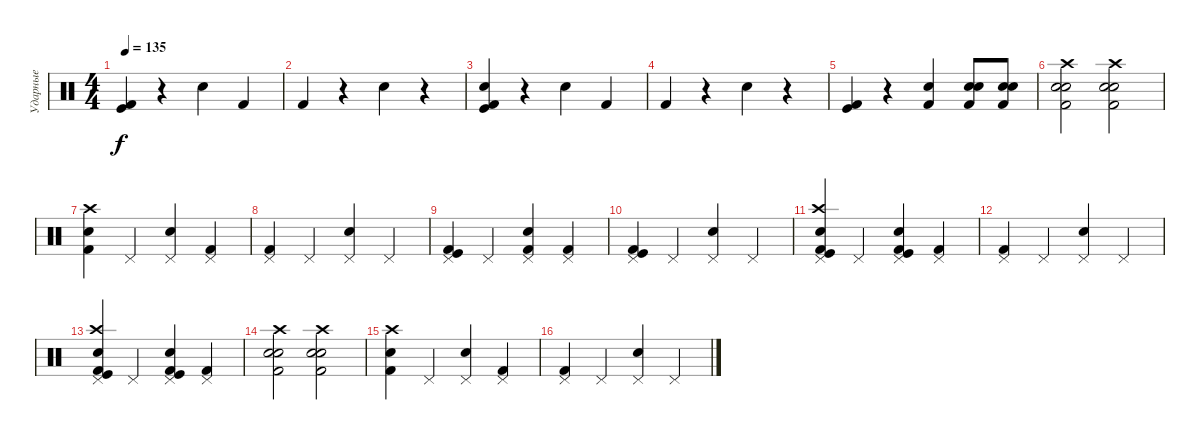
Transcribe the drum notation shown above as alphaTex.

\track ("Ударные" "Ударные") {instrument percussion}
\staff {score}
\articulation defaults
\ts (4 4)
\tempo 135
\clef neutral
\ks c
("Kick (hit) 2" "Kick (hit)").4{dy f} r.4 "Electric Snare (hit)".4 "Kick (hit) 2".4 |
"Kick (hit) 2".4 r.4 "Electric Snare (hit)".4 r.4 |
("Kick (hit) 2" "Kick (hit)" "Snare (hit) 2").4 r.4 "Electric Snare (hit)".4 "Kick (hit) 2".4 |
"Kick (hit) 2".4 r.4 "Electric Snare (hit)".4 r.4 |
("Kick (hit) 2" "Kick (hit)").4 r.4 ("Kick (hit) 2" "Electric Snare (hit)").4 ("Snare (hit) 2" "Kick (hit) 2" "Electric Snare (hit)").8 ("Snare (hit) 2" "Kick (hit) 2" "Electric Snare (hit)").8 |
("Kick (hit) 2" "Snare (hit) 2" "Crash high (hit)" "Electric Snare (hit)").2 ("Kick (hit) 2" "Snare (hit) 2" "Crash high (hit)" "Electric Snare (hit)").2 |
("Kick (hit) 2" "Snare (hit) 2" "Crash high (hit)").4 "Pedal Hi-Hat (hit)".4 ("Electric Snare (hit)" "Pedal Hi-Hat (hit)").4 ("Kick (hit) 2" "Pedal Hi-Hat (hit)").4 |
("Pedal Hi-Hat (hit)" "Kick (hit) 2").4 "Pedal Hi-Hat (hit)".4 ("Pedal Hi-Hat (hit)" "Electric Snare (hit)").4 "Pedal Hi-Hat (hit)".4 |
("Pedal Hi-Hat (hit)" "Kick (hit) 2" "Kick (hit)").4 "Pedal Hi-Hat (hit)".4 ("Pedal Hi-Hat (hit)" "Electric Snare (hit)" "Kick (hit) 2").4 ("Pedal Hi-Hat (hit)" "Kick (hit) 2").4 |
("Kick (hit) 2" "Kick (hit)" "Pedal Hi-Hat (hit)").4 "Pedal Hi-Hat (hit)".4 ("Electric Snare (hit)" "Pedal Hi-Hat (hit)").4 "Pedal Hi-Hat (hit)".4 |
("Pedal Hi-Hat (hit)" "Kick (hit)" "Crash high (hit)" "Snare (hit) 2" "Kick (hit) 2").4 "Pedal Hi-Hat (hit)".4 ("Kick (hit)" "Pedal Hi-Hat (hit)" "Electric Snare (hit)" "Kick (hit) 2").4 ("Pedal Hi-Hat (hit)" "Kick (hit) 2").4 |
("Pedal Hi-Hat (hit)" "Kick (hit) 2").4 "Pedal Hi-Hat (hit)".4 ("Pedal Hi-Hat (hit)" "Electric Snare (hit)").4 "Pedal Hi-Hat (hit)".4 |
("Pedal Hi-Hat (hit)" "Kick (hit)" "Crash high (hit)" "Snare (hit) 2" "Kick (hit) 2").4 "Pedal Hi-Hat (hit)".4 ("Kick (hit)" "Pedal Hi-Hat (hit)" "Electric Snare (hit)" "Kick (hit) 2").4 ("Pedal Hi-Hat (hit)" "Kick (hit) 2").4 |
("Kick (hit) 2" "Snare (hit) 2" "Crash high (hit)" "Electric Snare (hit)").2 ("Kick (hit) 2" "Snare (hit) 2" "Crash high (hit)" "Electric Snare (hit)").2 |
("Kick (hit) 2" "Snare (hit) 2" "Crash high (hit)").4 "Pedal Hi-Hat (hit)".4 ("Electric Snare (hit)" "Pedal Hi-Hat (hit)").4 ("Kick (hit) 2" "Pedal Hi-Hat (hit)").4 |
("Pedal Hi-Hat (hit)" "Kick (hit) 2").4 "Pedal Hi-Hat (hit)".4 ("Pedal Hi-Hat (hit)" "Electric Snare (hit)").4 "Pedal Hi-Hat (hit)".4
